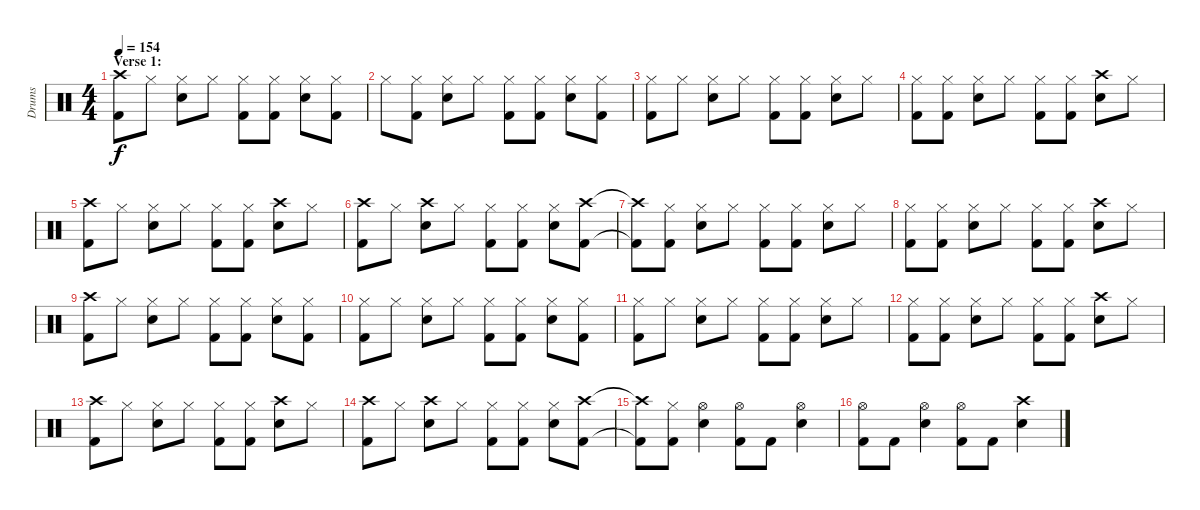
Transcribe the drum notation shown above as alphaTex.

\track ("Drums" "Drums") {instrument percussion}
\staff {score}
\articulation defaults
\ts (4 4)
\section ("" "Verse 1:")
\tempo 154
\clef neutral
\ks c
("Crash high (hit)" "Kick (hit) 2").8{dy f} "Hi-Hat (closed)".8 ("Hi-Hat (closed)" "Snare (hit) 2").8 "Hi-Hat (closed)".8 ("Hi-Hat (closed)" "Kick (hit) 2").8 ("Hi-Hat (closed)" "Kick (hit) 2").8 ("Hi-Hat (closed)" "Snare (hit) 2").8 ("Hi-Hat (closed)" "Kick (hit) 2").8 |
"Hi-Hat (closed)".8 ("Hi-Hat (closed)" "Kick (hit) 2").8 ("Hi-Hat (closed)" "Snare (hit) 2").8 "Hi-Hat (closed)".8 ("Hi-Hat (closed)" "Kick (hit) 2").8 ("Hi-Hat (closed)" "Kick (hit) 2").8 ("Hi-Hat (closed)" "Snare (hit) 2").8 ("Hi-Hat (closed)" "Kick (hit) 2").8 |
("Hi-Hat (closed)" "Kick (hit) 2").8 "Hi-Hat (closed)".8 ("Hi-Hat (closed)" "Snare (hit) 2").8 "Hi-Hat (closed)".8 ("Hi-Hat (closed)" "Kick (hit) 2").8 ("Hi-Hat (closed)" "Kick (hit) 2").8 ("Hi-Hat (closed)" "Snare (hit) 2").8 "Hi-Hat (closed)".8 |
("Hi-Hat (closed)" "Kick (hit) 2").8 ("Hi-Hat (closed)" "Kick (hit) 2").8 ("Hi-Hat (closed)" "Snare (hit) 2").8 "Hi-Hat (closed)".8 ("Hi-Hat (closed)" "Kick (hit) 2").8 ("Hi-Hat (closed)" "Kick (hit) 2").8 ("Crash high (hit)" "Snare (hit) 2").8 "Hi-Hat (closed)".8 |
("Crash high (hit)" "Kick (hit) 2").8 "Hi-Hat (closed)".8 ("Hi-Hat (closed)" "Snare (hit) 2").8 "Hi-Hat (closed)".8 ("Hi-Hat (closed)" "Kick (hit) 2").8 ("Hi-Hat (closed)" "Kick (hit) 2").8 ("Crash high (hit)" "Snare (hit) 2").8 "Hi-Hat (closed)".8 |
("Crash high (hit)" "Kick (hit) 2").8 "Hi-Hat (closed)".8 ("Crash high (hit)" "Snare (hit) 2").8 "Hi-Hat (closed)".8 ("Hi-Hat (closed)" "Kick (hit) 2").8 ("Hi-Hat (closed)" "Kick (hit) 2").8 ("Hi-Hat (closed)" "Snare (hit) 2").8 ("Crash high (hit)" "Kick (hit) 2").8 |
("Crash high (hit)"{t} "Kick (hit) 2"{t}).8 ("Hi-Hat (closed)" "Kick (hit) 2").8 ("Hi-Hat (closed)" "Snare (hit) 2").8 "Hi-Hat (closed)".8 ("Hi-Hat (closed)" "Kick (hit) 2").8 ("Hi-Hat (closed)" "Kick (hit) 2").8 ("Hi-Hat (closed)" "Snare (hit) 2").8 "Hi-Hat (closed)".8 |
("Hi-Hat (closed)" "Kick (hit) 2").8 ("Hi-Hat (closed)" "Kick (hit) 2").8 ("Hi-Hat (closed)" "Snare (hit) 2").8 "Hi-Hat (closed)".8 ("Hi-Hat (closed)" "Kick (hit) 2").8 ("Hi-Hat (closed)" "Kick (hit) 2").8 ("Crash high (hit)" "Snare (hit) 2").8 "Hi-Hat (closed)".8 |
("Crash high (hit)" "Kick (hit) 2").8 "Hi-Hat (closed)".8 ("Hi-Hat (closed)" "Snare (hit) 2").8 "Hi-Hat (closed)".8 ("Hi-Hat (closed)" "Kick (hit) 2").8 ("Hi-Hat (closed)" "Kick (hit) 2").8 ("Hi-Hat (closed)" "Snare (hit) 2").8 ("Hi-Hat (closed)" "Kick (hit) 2").8 |
("Hi-Hat (closed)" "Kick (hit) 2").8 "Hi-Hat (closed)".8 ("Hi-Hat (closed)" "Snare (hit) 2").8 "Hi-Hat (closed)".8 ("Hi-Hat (closed)" "Kick (hit) 2").8 ("Hi-Hat (closed)" "Kick (hit) 2").8 ("Hi-Hat (closed)" "Snare (hit) 2").8 ("Hi-Hat (closed)" "Kick (hit) 2").8 |
("Hi-Hat (closed)" "Kick (hit) 2").8 "Hi-Hat (closed)".8 ("Hi-Hat (closed)" "Snare (hit) 2").8 "Hi-Hat (closed)".8 ("Hi-Hat (closed)" "Kick (hit) 2").8 ("Hi-Hat (closed)" "Kick (hit) 2").8 ("Hi-Hat (closed)" "Snare (hit) 2").8 "Hi-Hat (closed)".8 |
("Hi-Hat (closed)" "Kick (hit) 2").8 ("Hi-Hat (closed)" "Kick (hit) 2").8 ("Hi-Hat (closed)" "Snare (hit) 2").8 "Hi-Hat (closed)".8 ("Hi-Hat (closed)" "Kick (hit) 2").8 ("Hi-Hat (closed)" "Kick (hit) 2").8 ("Crash high (hit)" "Snare (hit) 2").8 "Hi-Hat (closed)".8 |
("Crash high (hit)" "Kick (hit) 2").8 "Hi-Hat (closed)".8 ("Hi-Hat (closed)" "Snare (hit) 2").8 "Hi-Hat (closed)".8 ("Hi-Hat (closed)" "Kick (hit) 2").8 ("Hi-Hat (closed)" "Kick (hit) 2").8 ("Crash high (hit)" "Snare (hit) 2").8 "Hi-Hat (closed)".8 |
("Crash high (hit)" "Kick (hit) 2").8 "Hi-Hat (closed)".8 ("Crash high (hit)" "Snare (hit) 2").8 "Hi-Hat (closed)".8 ("Hi-Hat (closed)" "Kick (hit) 2").8 ("Hi-Hat (closed)" "Kick (hit) 2").8 ("Hi-Hat (closed)" "Snare (hit) 2").8 ("Crash high (hit)" "Kick (hit) 2").8 |
("Crash high (hit)"{t} "Kick (hit) 2"{t}).8 ("Hi-Hat (closed)" "Kick (hit) 2").8 ("Hi-Hat (open)" "Snare (hit) 2").4 ("Hi-Hat (open)" "Kick (hit) 2").8 "Kick (hit) 2".8 ("Hi-Hat (open)" "Snare (hit) 2").4 |
("Hi-Hat (open)" "Kick (hit) 2").8 "Kick (hit) 2".8 ("Hi-Hat (open)" "Snare (hit) 2").4 ("Hi-Hat (open)" "Kick (hit) 2").8 "Kick (hit) 2".8 ("Crash high (hit)" "Snare (hit) 2").4
